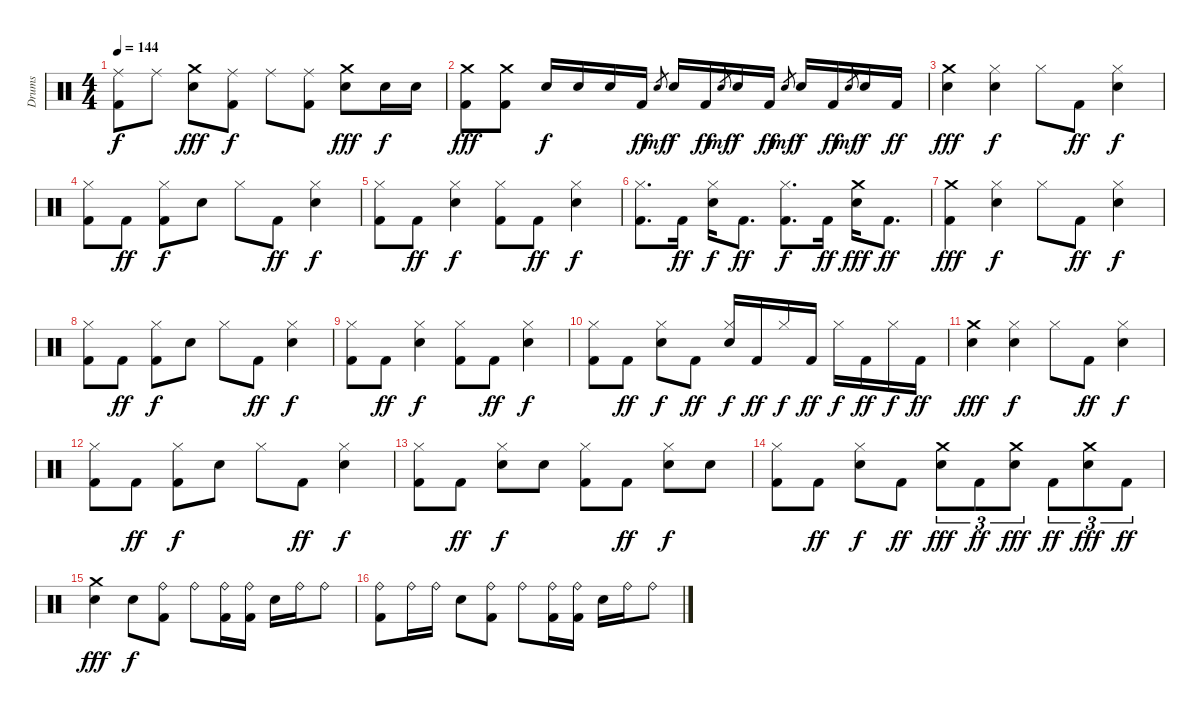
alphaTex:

\bracketExtendMode groupsimilarinstruments
\otherSystemsTrackNameOrientation horizontal
\track ("Drumkit" "Drums") {instrument percussion}
\staff {score}
\articulation defaults
\ts (4 4)
\tempo 144
\clef neutral
\ks c
("Ride (middle)" "Kick (hit) 2").8{dy f beam Down} "Ride (middle)".8{beam Down} ("Crash medium (hit)" "Snare (hit) 2").8{dy fff beam Down} ("Ride (middle)" "Kick (hit) 2").8{dy f beam Down} "Ride (middle)".8{beam Down} ("Ride (middle)" "Kick (hit) 2").8{beam Down} ("Crash medium (hit)" "Snare (hit) 2").8{dy fff beam Down} "Snare (hit) 2".16{dy f beam Down} "Snare (hit) 2".16{beam Down} |
("Crash medium (hit)" "Kick (hit) 2").8{dy fff beam Down} ("Crash medium (hit)" "Kick (hit) 2").8{beam Down} "Snare (hit) 2".16{dy f beam Up} "Snare (hit) 2".16{beam Up} "Snare (hit) 2".16{beam Up} "Kick (hit) 2".16{dy ff beam Up} "Snare (hit) 2".8{gr dy mf beam Up} "Snare (hit) 2".16{dy f beam Up} "Kick (hit) 2".16{dy ff beam Up} "Snare (hit) 2".8{gr dy mf beam Up} "Snare (hit) 2".16{dy f beam Up} "Kick (hit) 2".16{dy ff beam Up} "Snare (hit) 2".8{gr dy mf beam Up} "Snare (hit) 2".16{dy f beam Up} "Kick (hit) 2".16{dy ff beam Up} "Snare (hit) 2".8{gr dy mf beam Up} "Snare (hit) 2".16{dy f beam Up} "Kick (hit) 2".16{dy ff beam Up} |
("Crash medium (hit)" "Snare (hit) 2").4{dy fff beam Down} ("Hi-Hat (closed)" "Snare (hit) 2").4{dy f beam Down} "Hi-Hat (closed)".8{beam Down} "Kick (hit) 2".8{dy ff beam Down} ("Hi-Hat (closed)" "Snare (hit) 2").4{dy f beam Down} |
("Hi-Hat (closed)" "Kick (hit) 2").8{beam Down} "Kick (hit) 2".8{dy ff beam Down} ("Hi-Hat (closed)" "Kick (hit) 2").8{dy f beam Down} "Snare (hit) 2".8{beam Down} "Hi-Hat (closed)".8{beam Down} "Kick (hit) 2".8{dy ff beam Down} ("Hi-Hat (closed)" "Snare (hit) 2").4{dy f beam Down} |
("Hi-Hat (closed)" "Kick (hit) 2").8{beam Down} "Kick (hit) 2".8{dy ff beam Down} ("Hi-Hat (closed)" "Snare (hit) 2").4{dy f beam Down} ("Hi-Hat (closed)" "Kick (hit) 2").8{beam Down} "Kick (hit) 2".8{dy ff beam Down} ("Hi-Hat (closed)" "Snare (hit) 2").4{dy f beam Down} |
("Hi-Hat (closed)" "Kick (hit) 2").8{d beam Down} "Kick (hit) 2".16{dy ff beam Down} ("Hi-Hat (closed)" "Snare (hit) 2").16{dy f beam Down} "Kick (hit) 2".8{d dy ff beam Down} ("Hi-Hat (closed)" "Kick (hit) 2").8{d dy f beam Down} "Kick (hit) 2".16{dy ff beam Down} ("Crash medium (hit)" "Snare (hit) 2").16{dy fff beam Down} "Kick (hit) 2".8{d dy ff beam Down} |
("Crash medium (hit)" "Kick (hit) 2").4{dy fff beam Down} ("Hi-Hat (closed)" "Snare (hit) 2").4{dy f beam Down} "Hi-Hat (closed)".8{beam Down} "Kick (hit) 2".8{dy ff beam Down} ("Hi-Hat (closed)" "Snare (hit) 2").4{dy f beam Down} |
("Hi-Hat (closed)" "Kick (hit) 2").8{beam Down} "Kick (hit) 2".8{dy ff beam Down} ("Hi-Hat (closed)" "Kick (hit) 2").8{dy f beam Down} "Snare (hit) 2".8{beam Down} "Hi-Hat (closed)".8{beam Down} "Kick (hit) 2".8{dy ff beam Down} ("Hi-Hat (closed)" "Snare (hit) 2").4{dy f beam Down} |
("Hi-Hat (closed)" "Kick (hit) 2").8{beam Down} "Kick (hit) 2".8{dy ff beam Down} ("Hi-Hat (closed)" "Snare (hit) 2").4{dy f beam Down} ("Hi-Hat (closed)" "Kick (hit) 2").8{beam Down} "Kick (hit) 2".8{dy ff beam Down} ("Hi-Hat (closed)" "Snare (hit) 2").4{dy f beam Down} |
("Hi-Hat (closed)" "Kick (hit) 2").8{beam Down} "Kick (hit) 2".8{dy ff beam Down} ("Hi-Hat (closed)" "Snare (hit) 2").8{dy f beam Down} "Kick (hit) 2".8{dy ff beam Down} ("Hi-Hat (closed)" "Snare (hit) 2").16{dy f beam Up} "Kick (hit) 2".16{dy ff beam Up} "Hi-Hat (closed)".16{dy f beam Up} "Kick (hit) 2".16{dy ff beam Up} "Hi-Hat (closed)".16{dy f beam Down} "Kick (hit) 2".16{dy ff beam Down} "Hi-Hat (closed)".16{dy f beam Down} "Kick (hit) 2".16{dy ff beam Down} |
("Crash medium (hit)" "Snare (hit) 2").4{dy fff beam Down} ("Hi-Hat (closed)" "Snare (hit) 2").4{dy f beam Down} "Hi-Hat (closed)".8{beam Down} "Kick (hit) 2".8{dy ff beam Down} ("Hi-Hat (closed)" "Snare (hit) 2").4{dy f beam Down} |
("Hi-Hat (closed)" "Kick (hit) 2").8{beam Down} "Kick (hit) 2".8{dy ff beam Down} ("Hi-Hat (closed)" "Kick (hit) 2").8{dy f beam Down} "Snare (hit) 2".8{beam Down} "Hi-Hat (closed)".8{beam Down} "Kick (hit) 2".8{dy ff beam Down} ("Hi-Hat (closed)" "Snare (hit) 2").4{dy f beam Down} |
("Hi-Hat (closed)" "Kick (hit) 2").8{beam Down} "Kick (hit) 2".8{dy ff beam Down} ("Hi-Hat (closed)" "Snare (hit) 2").8{dy f beam Down} "Snare (hit) 2".8{beam Down} ("Hi-Hat (closed)" "Kick (hit) 2").8{beam Down} "Kick (hit) 2".8{dy ff beam Down} ("Hi-Hat (closed)" "Snare (hit) 2").8{dy f beam Down} "Snare (hit) 2".8{beam Down} |
("Hi-Hat (closed)" "Kick (hit) 2").8{beam Down} "Kick (hit) 2".8{dy ff beam Down} ("Hi-Hat (closed)" "Snare (hit) 2").8{dy f beam Down} "Kick (hit) 2".8{dy ff beam Down} ("Crash medium (hit)" "Snare (hit) 2").8{tu (3 2) dy fff beam Down} "Kick (hit) 2".8{tu (3 2) dy ff beam Down} ("Crash medium (hit)" "Snare (hit) 2").8{tu (3 2) dy fff beam Down} "Kick (hit) 2".8{tu (3 2) dy ff beam Down} ("Crash medium (hit)" "Snare (hit) 2").8{tu (3 2) dy fff beam Down} "Kick (hit) 2".8{tu (3 2) dy ff beam Down} |
("Crash medium (hit)" "Snare (hit) 2").4{dy fff beam Down} "Snare (hit) 2".8{dy f beam Down} ("Ride (bell)" "Kick (hit) 2").8{beam Down} "Ride (bell)".8{beam Down} ("Ride (bell)" "Kick (hit) 2").16{beam Down} ("Ride (bell)" "Kick (hit) 2").16{beam Down} "Snare (hit) 2".16{beam Down} "Ride (bell)".16{beam Down} "Ride (bell)".8{beam Down} |
("Ride (bell)" "Kick (hit) 2").8{beam Down} "Ride (bell)".16{beam Down} "Ride (bell)".16{beam Down} "Snare (hit) 2".8{beam Down} ("Ride (bell)" "Kick (hit) 2").8{beam Down} "Ride (bell)".8{beam Down} ("Ride (bell)" "Kick (hit) 2").16{beam Down} ("Ride (bell)" "Kick (hit) 2").16{beam Down} "Snare (hit) 2".16{beam Down} "Ride (bell)".16{beam Down} "Ride (bell)".8{beam Down}
